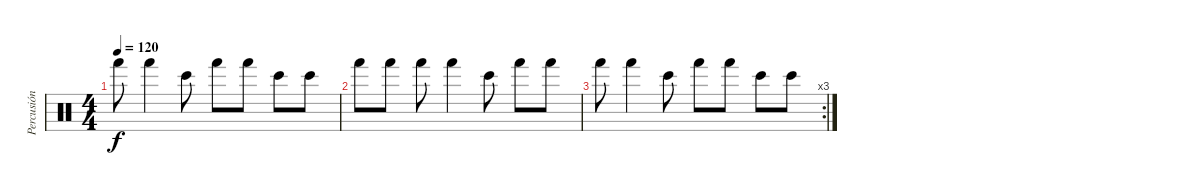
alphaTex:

\track ("Percusión" "Percusión") {instrument percussion}
\staff
\articulation defaults
\ts (4 4)
\tempo 120
\clef neutral
\ks c "Hand (hit)".8{dy f} "Hand (hit)".4 "Bongo High (hit)".8 "Hand (hit)".8 "Hand (hit)".8 "Bongo High (hit)".8 "Bongo High (hit)".8
|
"Hand (hit)".8 "Hand (hit)".8 "Hand (hit)".8 "Hand (hit)".4 "Bongo High (hit)".8 "Hand (hit)".8 "Hand (hit)".8 |
\rc 3 "Hand (hit)".8 "Hand (hit)".4 "Bongo High (hit)".8 "Hand (hit)".8 "Hand (hit)".8 "Bongo High (hit)".8 "Bongo High (hit)".8
